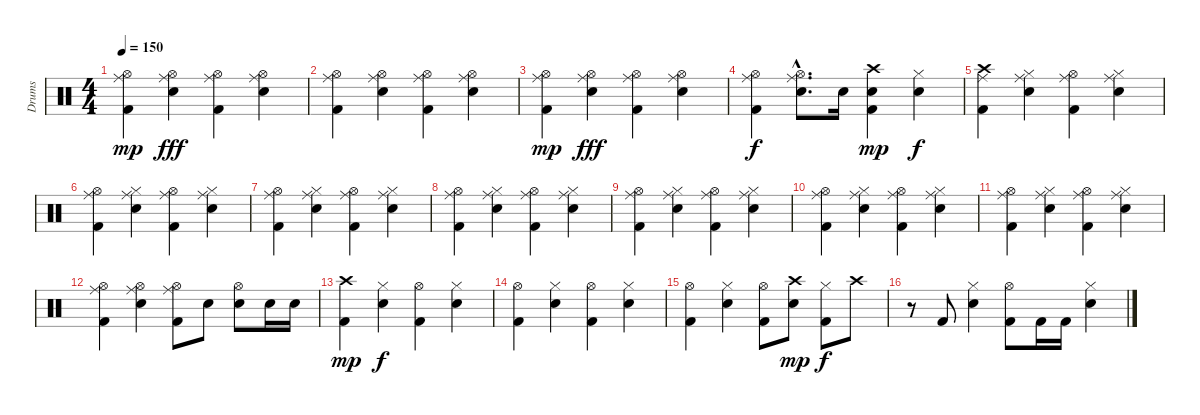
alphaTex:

\track ("Drums" "Drums") {instrument percussion}
\staff {score}
\articulation defaults
\ts (4 4)
\tempo 150
\clef neutral
\ks c
("Kick (hit) 2" "Hi-Hat (open)" "Ride (middle)").4{dy mp} ("Electric Snare (hit)" "Hi-Hat (open)" "Ride (middle)").4{dy fff} ("Kick (hit) 2" "Hi-Hat (open)" "Ride (middle)").4 ("Electric Snare (hit)" "Hi-Hat (open)" "Ride (middle)").4 |
("Kick (hit) 2" "Hi-Hat (open)" "Ride (middle)").4 ("Electric Snare (hit)" "Hi-Hat (open)" "Ride (middle)").4 ("Kick (hit) 2" "Hi-Hat (open)" "Ride (middle)").4 ("Electric Snare (hit)" "Hi-Hat (open)" "Ride (middle)").4 |
("Kick (hit) 2" "Hi-Hat (open)" "Ride (middle)").4{dy mp} ("Electric Snare (hit)" "Hi-Hat (open)" "Ride (middle)").4{dy fff} ("Kick (hit) 2" "Hi-Hat (open)" "Ride (middle)").4 ("Electric Snare (hit)" "Hi-Hat (open)" "Ride (middle)").4 |
("Kick (hit) 2" "Hi-Hat (open)" "Ride (middle)").4{dy f} ("Electric Snare (hit)"{hac} "Hi-Hat (open)"{hac} "Ride (middle)"{hac}).8{d} "Electric Snare (hit)".16 ("Electric Snare (hit)" "Kick (hit) 2" "Crash high (hit)").4{dy mp} ("Electric Snare (hit)" "Hi-Hat (closed)").4{dy f} |
("Kick (hit) 2" "Ride (middle)" "Crash high (hit)").4 ("Electric Snare (hit)" "Ride (middle)" "Hi-Hat (closed)").4 ("Kick (hit) 2" "Ride (middle)" "Hi-Hat (open)").4 ("Electric Snare (hit)" "Ride (middle)" "Hi-Hat (closed)").4 |
("Kick (hit) 2" "Ride (middle)" "Hi-Hat (open)").4 ("Electric Snare (hit)" "Ride (middle)" "Hi-Hat (closed)").4 ("Kick (hit) 2" "Ride (middle)" "Hi-Hat (open)").4 ("Electric Snare (hit)" "Ride (middle)" "Hi-Hat (closed)").4 |
("Kick (hit) 2" "Ride (middle)" "Hi-Hat (open)").4 ("Electric Snare (hit)" "Ride (middle)" "Hi-Hat (closed)").4 ("Kick (hit) 2" "Ride (middle)" "Hi-Hat (open)").4 ("Electric Snare (hit)" "Ride (middle)" "Hi-Hat (closed)").4 |
("Kick (hit) 2" "Ride (middle)" "Hi-Hat (open)").4 ("Electric Snare (hit)" "Ride (middle)" "Hi-Hat (closed)").4 ("Kick (hit) 2" "Ride (middle)" "Hi-Hat (open)").4 ("Electric Snare (hit)" "Ride (middle)" "Hi-Hat (closed)").4 |
("Kick (hit) 2" "Ride (middle)" "Hi-Hat (open)").4 ("Electric Snare (hit)" "Ride (middle)" "Hi-Hat (closed)").4 ("Kick (hit) 2" "Ride (middle)" "Hi-Hat (open)").4 ("Electric Snare (hit)" "Ride (middle)" "Hi-Hat (closed)").4 |
("Kick (hit) 2" "Ride (middle)" "Hi-Hat (open)").4 ("Electric Snare (hit)" "Ride (middle)" "Hi-Hat (closed)").4 ("Kick (hit) 2" "Ride (middle)" "Hi-Hat (open)").4 ("Electric Snare (hit)" "Ride (middle)" "Hi-Hat (closed)").4 |
("Kick (hit) 2" "Ride (middle)" "Hi-Hat (open)").4 ("Electric Snare (hit)" "Ride (middle)" "Hi-Hat (closed)").4 ("Kick (hit) 2" "Ride (middle)" "Hi-Hat (open)").4 ("Electric Snare (hit)" "Ride (middle)" "Hi-Hat (closed)").4 |
("Kick (hit) 2" "Ride (middle)" "Hi-Hat (open)").4 ("Electric Snare (hit)" "Ride (middle)" "Hi-Hat (open)").4 ("Kick (hit) 2" "Ride (middle)" "Hi-Hat (open)").8 "Electric Snare (hit)".8 ("Electric Snare (hit)" "Hi-Hat (open)").8 "Electric Snare (hit)".16 "Electric Snare (hit)".16 |
("Kick (hit) 2" "Crash high (hit)").4{dy mp} ("Electric Snare (hit)" "Hi-Hat (closed)").4{dy f} ("Kick (hit) 2" "Hi-Hat (open)").4 ("Electric Snare (hit)" "Hi-Hat (closed)").4 |
("Kick (hit) 2" "Hi-Hat (open)").4 ("Electric Snare (hit)" "Hi-Hat (closed)").4 ("Kick (hit) 2" "Hi-Hat (open)").4 ("Electric Snare (hit)" "Hi-Hat (closed)").4 |
("Kick (hit) 2" "Hi-Hat (open)").4 ("Electric Snare (hit)" "Hi-Hat (closed)").4 ("Kick (hit) 2" "Hi-Hat (open)").8 ("Electric Snare (hit)" "Crash high (hit)").8{dy mp} ("Kick (hit) 2" "Hi-Hat (closed)").8{dy f} "Crash high (hit)".8 |
r.8 "Kick (hit) 2".8 ("Electric Snare (hit)" "Hi-Hat (closed)").4 ("Kick (hit) 2" "Hi-Hat (open)").8 "Kick (hit) 2".16 "Kick (hit) 2".16 ("Electric Snare (hit)" "Hi-Hat (closed)").4
